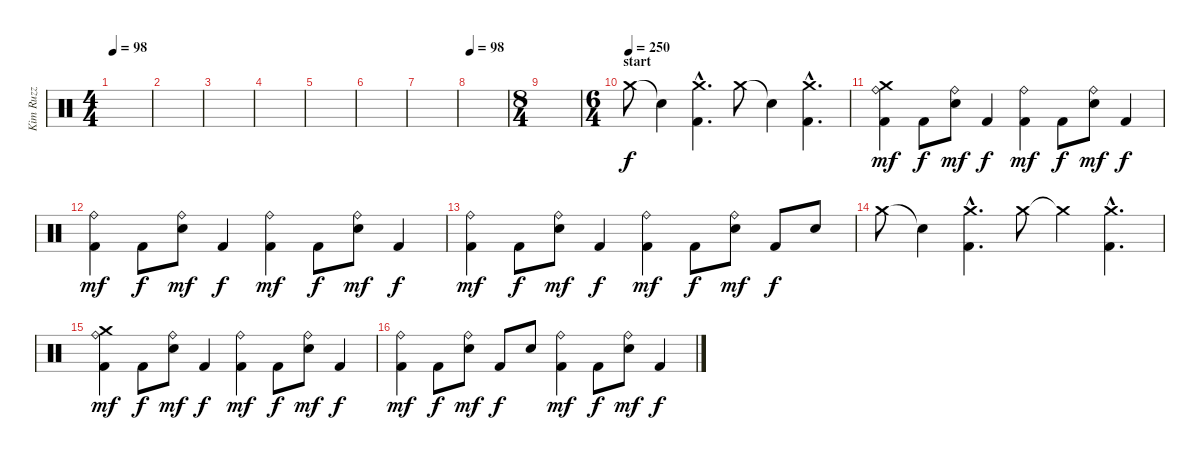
\track ("Kim Ruzz" "Kim Ruzz") {instrument percussion}
\staff {score}
\articulation defaults
\ts (4 4)
\tempo 98
\clef neutral
\ks c
|
|
|
|
|
|
|
\tempo 98
|
\ts (8 4)
|
\ts (6 4)
\section ("" "start")
\tempo (250)
"Crash medium (hit)".8 "Snare (hit)"{t}.4 ("Kick (hit) 2"{hac} "Crash medium (hit)"{hac}).4{d} "Crash medium (hit)".8 "Snare (hit)"{t}.4 ("Kick (hit) 2"{hac} "Crash medium (hit)"{hac}).4{d} |
("Kick (hit) 2" "Ride (bell)" "Crash medium (hit)").4{dy mf} "Kick (hit) 2".8{dy f} ("Ride (bell)" "Snare (hit) 2").8{dy mf} "Kick (hit) 2".4{dy f} ("Kick (hit) 2" "Ride (bell)").4{dy mf} "Kick (hit) 2".8{dy f} ("Ride (bell)" "Snare (hit) 2").8{dy mf} "Kick (hit) 2".4{dy f} |
("Kick (hit) 2" "Ride (bell)").4{dy mf} "Kick (hit) 2".8{dy f} ("Ride (bell)" "Snare (hit) 2").8{dy mf} "Kick (hit) 2".4{dy f} ("Kick (hit) 2" "Ride (bell)").4{dy mf} "Kick (hit) 2".8{dy f} ("Ride (bell)" "Snare (hit) 2").8{dy mf} "Kick (hit) 2".4{dy f} |
("Kick (hit) 2" "Ride (bell)").4{dy mf} "Kick (hit) 2".8{dy f} ("Ride (bell)" "Snare (hit) 2").8{dy mf} "Kick (hit) 2".4{dy f} ("Kick (hit) 2" "Ride (bell)").4{dy mf} "Kick (hit) 2".8{dy f} ("Ride (bell)" "Snare (hit) 2").8{dy mf} "Kick (hit) 2".8{dy f} "Snare (hit) 2".8 |
"Crash medium (hit)".8 "Snare (hit)"{t}.4 ("Kick (hit) 2"{hac} "Crash medium (hit)"{hac}).4{d} "Crash medium (hit)".8 "Crash medium (hit)"{t}.4 ("Kick (hit) 2"{hac} "Crash medium (hit)"{hac}).4{d} |
("Kick (hit) 2" "Ride (bell)" "Crash medium (hit)").4{dy mf} "Kick (hit) 2".8{dy f} ("Ride (bell)" "Snare (hit) 2").8{dy mf} "Kick (hit) 2".4{dy f} ("Kick (hit) 2" "Ride (bell)").4{dy mf} "Kick (hit) 2".8{dy f} ("Ride (bell)" "Snare (hit) 2").8{dy mf} "Kick (hit) 2".4{dy f} |
("Kick (hit) 2" "Ride (bell)").4{dy mf} "Kick (hit) 2".8{dy f} ("Ride (bell)" "Snare (hit) 2").8{dy mf} "Kick (hit) 2".8{dy f} "Snare (hit) 2".8 ("Kick (hit) 2" "Ride (bell)").4{dy mf} "Kick (hit) 2".8{dy f} ("Ride (bell)" "Snare (hit) 2").8{dy mf} "Kick (hit) 2".4{dy f}
